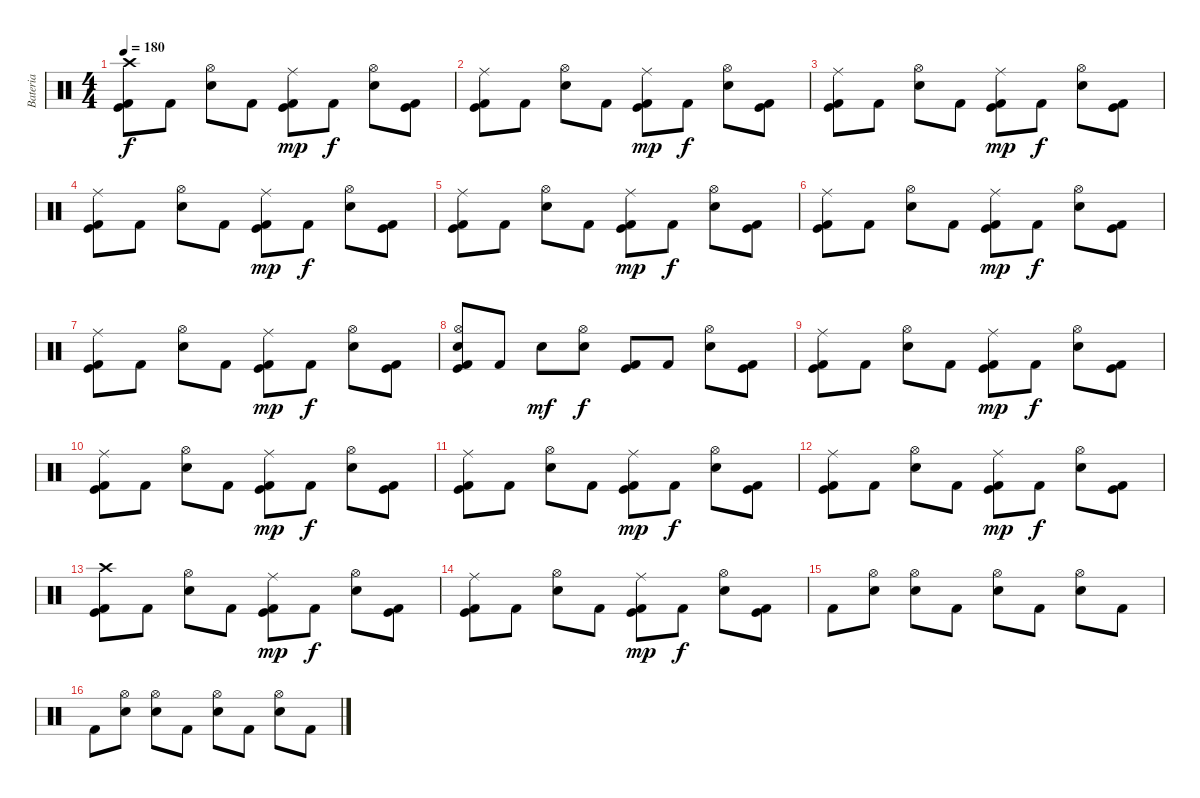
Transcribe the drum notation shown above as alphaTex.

\track ("Bateria" "Bateria") {instrument percussion}
\staff {score}
\articulation defaults
\ts (4 4)
\tempo 180
\clef neutral
\ks c
("Crash high (hit)" "Kick (hit)" "Kick (hit) 2").8{dy f} "Kick (hit) 2".8 ("Hi-Hat (open)" "Snare (hit) 2").8 "Kick (hit) 2".8 ("Ride (middle)" "Kick (hit)" "Kick (hit) 2").8{dy mp} "Kick (hit) 2".8{dy f} ("Hi-Hat (open)" "Snare (hit) 2").8 ("Kick (hit)" "Kick (hit) 2").8 |
("Ride (middle)" "Kick (hit)" "Kick (hit) 2").8 "Kick (hit) 2".8 ("Hi-Hat (open)" "Snare (hit) 2").8 "Kick (hit) 2".8 ("Ride (middle)" "Kick (hit)" "Kick (hit) 2").8{dy mp} "Kick (hit) 2".8{dy f} ("Hi-Hat (open)" "Snare (hit) 2").8 ("Kick (hit)" "Kick (hit) 2").8 |
("Ride (middle)" "Kick (hit)" "Kick (hit) 2").8 "Kick (hit) 2".8 ("Hi-Hat (open)" "Snare (hit) 2").8 "Kick (hit) 2".8 ("Ride (middle)" "Kick (hit)" "Kick (hit) 2").8{dy mp} "Kick (hit) 2".8{dy f} ("Hi-Hat (open)" "Snare (hit) 2").8 ("Kick (hit)" "Kick (hit) 2").8 |
("Ride (middle)" "Kick (hit)" "Kick (hit) 2").8 "Kick (hit) 2".8 ("Hi-Hat (open)" "Snare (hit) 2").8 "Kick (hit) 2".8 ("Ride (middle)" "Kick (hit)" "Kick (hit) 2").8{dy mp} "Kick (hit) 2".8{dy f} ("Hi-Hat (open)" "Snare (hit) 2").8 ("Kick (hit)" "Kick (hit) 2").8 |
("Ride (middle)" "Kick (hit)" "Kick (hit) 2").8 "Kick (hit) 2".8 ("Hi-Hat (open)" "Snare (hit) 2").8 "Kick (hit) 2".8 ("Ride (middle)" "Kick (hit)" "Kick (hit) 2").8{dy mp} "Kick (hit) 2".8{dy f} ("Hi-Hat (open)" "Snare (hit) 2").8 ("Kick (hit)" "Kick (hit) 2").8 |
("Ride (middle)" "Kick (hit)" "Kick (hit) 2").8 "Kick (hit) 2".8 ("Hi-Hat (open)" "Snare (hit) 2").8 "Kick (hit) 2".8 ("Ride (middle)" "Kick (hit)" "Kick (hit) 2").8{dy mp} "Kick (hit) 2".8{dy f} ("Hi-Hat (open)" "Snare (hit) 2").8 ("Kick (hit)" "Kick (hit) 2").8 |
("Ride (middle)" "Kick (hit)" "Kick (hit) 2").8 "Kick (hit) 2".8 ("Hi-Hat (open)" "Snare (hit) 2").8 "Kick (hit) 2".8 ("Ride (middle)" "Kick (hit)" "Kick (hit) 2").8{dy mp} "Kick (hit) 2".8{dy f} ("Hi-Hat (open)" "Snare (hit) 2").8 ("Kick (hit)" "Kick (hit) 2").8 |
("Hi-Hat (open)" "Snare (hit) 2" "Kick (hit)" "Kick (hit) 2").8 "Kick (hit) 2".8 "Snare (hit) 2".8{dy mf} ("Hi-Hat (open)" "Snare (hit) 2").8{dy f} ("Kick (hit)" "Kick (hit) 2").8 "Kick (hit) 2".8 ("Hi-Hat (open)" "Snare (hit) 2").8 ("Kick (hit)" "Kick (hit) 2").8 |
("Ride (middle)" "Kick (hit)" "Kick (hit) 2").8 "Kick (hit) 2".8 ("Hi-Hat (open)" "Snare (hit) 2").8 "Kick (hit) 2".8 ("Ride (middle)" "Kick (hit)" "Kick (hit) 2").8{dy mp} "Kick (hit) 2".8{dy f} ("Hi-Hat (open)" "Snare (hit) 2").8 ("Kick (hit)" "Kick (hit) 2").8 |
("Ride (middle)" "Kick (hit)" "Kick (hit) 2").8 "Kick (hit) 2".8 ("Hi-Hat (open)" "Snare (hit) 2").8 "Kick (hit) 2".8 ("Ride (middle)" "Kick (hit)" "Kick (hit) 2").8{dy mp} "Kick (hit) 2".8{dy f} ("Hi-Hat (open)" "Snare (hit) 2").8 ("Kick (hit)" "Kick (hit) 2").8 |
("Ride (middle)" "Kick (hit)" "Kick (hit) 2").8 "Kick (hit) 2".8 ("Hi-Hat (open)" "Snare (hit) 2").8 "Kick (hit) 2".8 ("Ride (middle)" "Kick (hit)" "Kick (hit) 2").8{dy mp} "Kick (hit) 2".8{dy f} ("Hi-Hat (open)" "Snare (hit) 2").8 ("Kick (hit)" "Kick (hit) 2").8 |
("Ride (middle)" "Kick (hit)" "Kick (hit) 2").8 "Kick (hit) 2".8 ("Hi-Hat (open)" "Snare (hit) 2").8 "Kick (hit) 2".8 ("Ride (middle)" "Kick (hit)" "Kick (hit) 2").8{dy mp} "Kick (hit) 2".8{dy f} ("Hi-Hat (open)" "Snare (hit) 2").8 ("Kick (hit)" "Kick (hit) 2").8 |
("Crash high (hit)" "Kick (hit)" "Kick (hit) 2").8 "Kick (hit) 2".8 ("Hi-Hat (open)" "Snare (hit) 2").8 "Kick (hit) 2".8 ("Ride (middle)" "Kick (hit)" "Kick (hit) 2").8{dy mp} "Kick (hit) 2".8{dy f} ("Hi-Hat (open)" "Snare (hit) 2").8 ("Kick (hit)" "Kick (hit) 2").8 |
("Ride (middle)" "Kick (hit)" "Kick (hit) 2").8 "Kick (hit) 2".8 ("Hi-Hat (open)" "Snare (hit) 2").8 "Kick (hit) 2".8 ("Ride (middle)" "Kick (hit)" "Kick (hit) 2").8{dy mp} "Kick (hit) 2".8{dy f} ("Hi-Hat (open)" "Snare (hit) 2").8 ("Kick (hit)" "Kick (hit) 2").8 |
"Kick (hit) 2".8 ("Hi-Hat (open)" "Snare (hit) 2").8 ("Hi-Hat (open)" "Snare (hit) 2").8 "Kick (hit) 2".8 ("Hi-Hat (open)" "Snare (hit) 2").8 "Kick (hit) 2".8 ("Hi-Hat (open)" "Snare (hit) 2").8 "Kick (hit) 2".8 |
"Kick (hit) 2".8 ("Hi-Hat (open)" "Snare (hit) 2").8 ("Hi-Hat (open)" "Snare (hit) 2").8 "Kick (hit) 2".8 ("Hi-Hat (open)" "Snare (hit) 2").8 "Kick (hit) 2".8 ("Hi-Hat (open)" "Snare (hit) 2").8 "Kick (hit) 2".8
